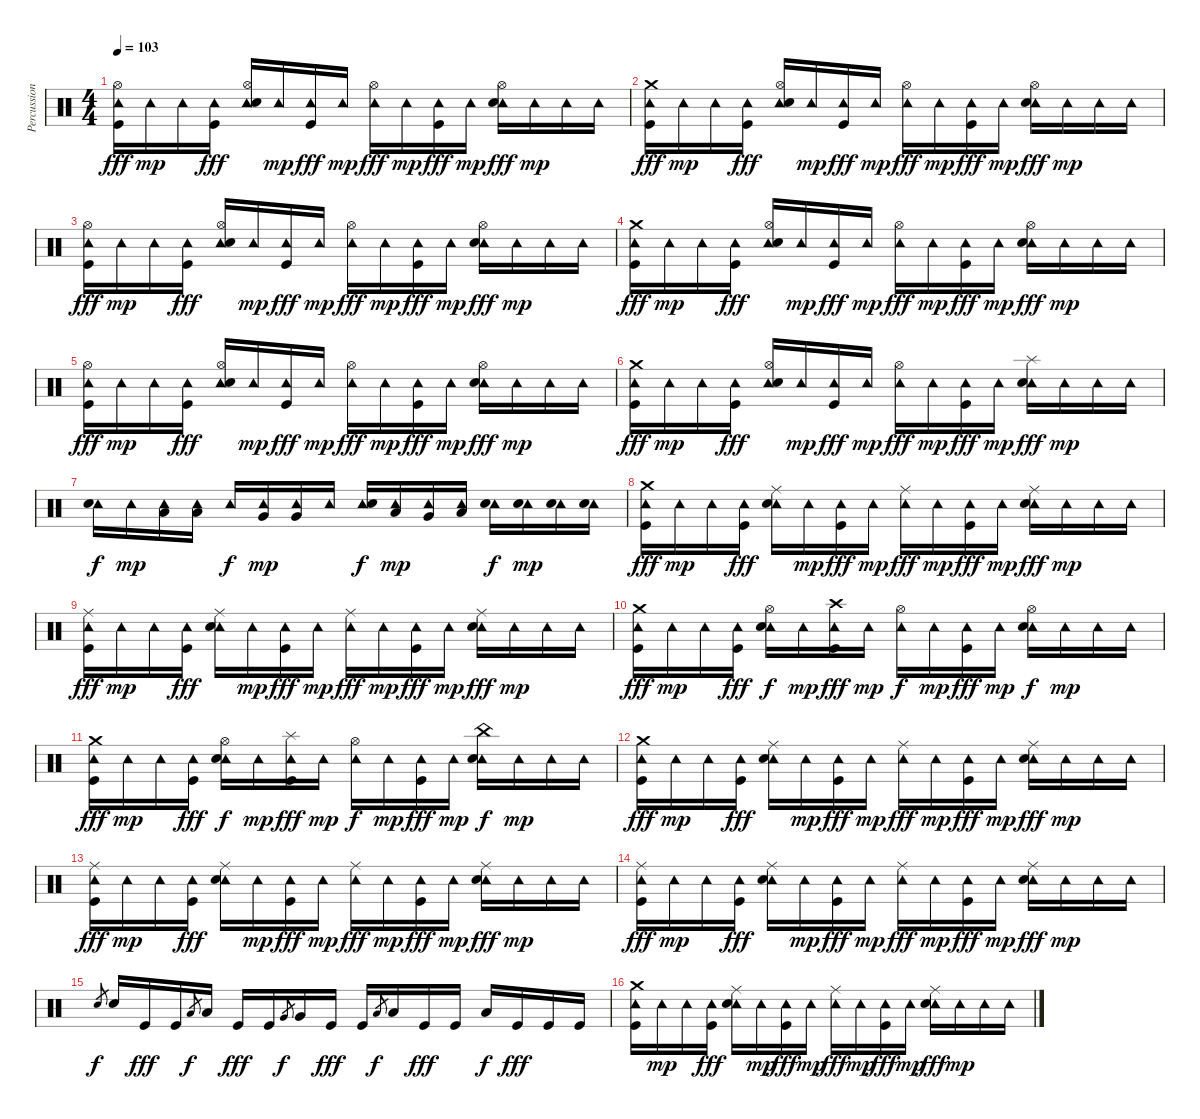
\track ("Percussion" "Percussion") {instrument percussion}
\staff {score}
\articulation defaults
\ts (4 4)
\tempo 103
\clef neutral
\ks c
("Tambourine (hit)" "Kick (hit)" "Hi-Hat (open)").16{dy fff} "Tambourine (hit)".16{dy mp} "Tambourine (hit)".16 ("Tambourine (hit)" "Kick (hit)").16{dy fff} ("Tambourine (hit)" "Electric Snare (hit)" "Hi-Hat (open)").16 "Tambourine (hit)".16{dy mp} ("Tambourine (hit)" "Kick (hit)").16{dy fff} "Tambourine (hit)".16{dy mp} ("Tambourine (hit)" "Hi-Hat (open)").16{dy fff} "Tambourine (hit)".16{dy mp} ("Tambourine (hit)" "Kick (hit)").16{dy fff} "Tambourine (hit)".16{dy mp} ("Tambourine (hit)" "Electric Snare (hit)" "Hi-Hat (open)").16{dy fff} "Tambourine (hit)".16{dy mp} "Tambourine (hit)".16 "Tambourine (hit)".16 |
("Tambourine (hit)" "Kick (hit)" "Crash medium (hit)").16{dy fff} "Tambourine (hit)".16{dy mp} "Tambourine (hit)".16 ("Tambourine (hit)" "Kick (hit)").16{dy fff} ("Tambourine (hit)" "Electric Snare (hit)" "Hi-Hat (open)").16 "Tambourine (hit)".16{dy mp} ("Tambourine (hit)" "Kick (hit)").16{dy fff} "Tambourine (hit)".16{dy mp} ("Tambourine (hit)" "Hi-Hat (open)").16{dy fff} "Tambourine (hit)".16{dy mp} ("Tambourine (hit)" "Kick (hit)").16{dy fff} "Tambourine (hit)".16{dy mp} ("Tambourine (hit)" "Electric Snare (hit)" "Hi-Hat (open)").16{dy fff} "Tambourine (hit)".16{dy mp} "Tambourine (hit)".16 "Tambourine (hit)".16 |
("Tambourine (hit)" "Kick (hit)" "Hi-Hat (open)").16{dy fff} "Tambourine (hit)".16{dy mp} "Tambourine (hit)".16 ("Tambourine (hit)" "Kick (hit)").16{dy fff} ("Tambourine (hit)" "Electric Snare (hit)" "Hi-Hat (open)").16 "Tambourine (hit)".16{dy mp} ("Tambourine (hit)" "Kick (hit)").16{dy fff} "Tambourine (hit)".16{dy mp} ("Tambourine (hit)" "Hi-Hat (open)").16{dy fff} "Tambourine (hit)".16{dy mp} ("Tambourine (hit)" "Kick (hit)").16{dy fff} "Tambourine (hit)".16{dy mp} ("Tambourine (hit)" "Electric Snare (hit)" "Hi-Hat (open)").16{dy fff} "Tambourine (hit)".16{dy mp} "Tambourine (hit)".16 "Tambourine (hit)".16 |
("Tambourine (hit)" "Kick (hit)" "Crash medium (hit)").16{dy fff} "Tambourine (hit)".16{dy mp} "Tambourine (hit)".16 ("Tambourine (hit)" "Kick (hit)").16{dy fff} ("Tambourine (hit)" "Electric Snare (hit)" "Hi-Hat (open)").16 "Tambourine (hit)".16{dy mp} ("Tambourine (hit)" "Kick (hit)").16{dy fff} "Tambourine (hit)".16{dy mp} ("Tambourine (hit)" "Hi-Hat (open)").16{dy fff} "Tambourine (hit)".16{dy mp} ("Tambourine (hit)" "Kick (hit)").16{dy fff} "Tambourine (hit)".16{dy mp} ("Tambourine (hit)" "Electric Snare (hit)" "Hi-Hat (open)").16{dy fff} "Tambourine (hit)".16{dy mp} "Tambourine (hit)".16 "Tambourine (hit)".16 |
("Tambourine (hit)" "Kick (hit)" "Hi-Hat (open)").16{dy fff} "Tambourine (hit)".16{dy mp} "Tambourine (hit)".16 ("Tambourine (hit)" "Kick (hit)").16{dy fff} ("Tambourine (hit)" "Electric Snare (hit)" "Hi-Hat (open)").16 "Tambourine (hit)".16{dy mp} ("Tambourine (hit)" "Kick (hit)").16{dy fff} "Tambourine (hit)".16{dy mp} ("Tambourine (hit)" "Hi-Hat (open)").16{dy fff} "Tambourine (hit)".16{dy mp} ("Tambourine (hit)" "Kick (hit)").16{dy fff} "Tambourine (hit)".16{dy mp} ("Tambourine (hit)" "Electric Snare (hit)" "Hi-Hat (open)").16{dy fff} "Tambourine (hit)".16{dy mp} "Tambourine (hit)".16 "Tambourine (hit)".16 |
("Tambourine (hit)" "Kick (hit)" "Crash medium (hit)").16{dy fff} "Tambourine (hit)".16{dy mp} "Tambourine (hit)".16 ("Tambourine (hit)" "Kick (hit)").16{dy fff} ("Tambourine (hit)" "Electric Snare (hit)" "Hi-Hat (open)").16 "Tambourine (hit)".16{dy mp} ("Tambourine (hit)" "Kick (hit)").16{dy fff} "Tambourine (hit)".16{dy mp} ("Tambourine (hit)" "Hi-Hat (open)").16{dy fff} "Tambourine (hit)".16{dy mp} ("Tambourine (hit)" "Kick (hit)").16{dy fff} "Tambourine (hit)".16{dy mp} ("Tambourine (hit)" "Electric Snare (hit)" "Splash (hit)").16{dy fff} "Tambourine (hit)".16{dy mp} "Tambourine (hit)".16 "Tambourine (hit)".16 |
("Tambourine (hit)" "Electric Snare (hit)").16{dy f} "Tambourine (hit)".16{dy mp} ("Tambourine (hit)" "Low Tom (hit)").16 ("Tambourine (hit)" "Low Tom (hit)").16 "Tambourine (hit)".16{dy f} ("Tambourine (hit)" "Very Low Tom (hit)").16{dy mp} ("Tambourine (hit)" "Very Low Tom (hit)").16 "Tambourine (hit)".16 ("Tambourine (hit)" "Electric Snare (hit)").16{dy f} ("Tambourine (hit)" "Low Tom (hit)").16{dy mp} ("Tambourine (hit)" "Very Low Tom (hit)").16 ("Tambourine (hit)" "Low Floor Tom (hit)").16 ("Tambourine (hit)" "Electric Snare (hit)").16{dy f} ("Tambourine (hit)" "Electric Snare (hit)").16{dy mp} ("Tambourine (hit)" "Electric Snare (hit)").16 ("Tambourine (hit)" "Electric Snare (hit)").16 |
("Tambourine (hit)" "Kick (hit)" "Crash medium (hit)").16{dy fff} "Tambourine (hit)".16{dy mp} "Tambourine (hit)".16 ("Tambourine (hit)" "Kick (hit)").16{dy fff} ("Tambourine (hit)" "Electric Snare (hit)" "Ride (middle)").16 "Tambourine (hit)".16{dy mp} ("Tambourine (hit)" "Kick (hit)").16{dy fff} "Tambourine (hit)".16{dy mp} ("Tambourine (hit)" "Ride (middle)").16{dy fff} "Tambourine (hit)".16{dy mp} ("Tambourine (hit)" "Kick (hit)").16{dy fff} "Tambourine (hit)".16{dy mp} ("Tambourine (hit)" "Electric Snare (hit)" "Ride (middle)").16{dy fff} "Tambourine (hit)".16{dy mp} "Tambourine (hit)".16 "Tambourine (hit)".16 |
("Tambourine (hit)" "Kick (hit)" "Ride (middle)").16{dy fff} "Tambourine (hit)".16{dy mp} "Tambourine (hit)".16 ("Tambourine (hit)" "Kick (hit)").16{dy fff} ("Tambourine (hit)" "Electric Snare (hit)" "Ride (middle)").16 "Tambourine (hit)".16{dy mp} ("Tambourine (hit)" "Kick (hit)").16{dy fff} "Tambourine (hit)".16{dy mp} ("Tambourine (hit)" "Ride (middle)").16{dy fff} "Tambourine (hit)".16{dy mp} ("Tambourine (hit)" "Kick (hit)").16{dy fff} "Tambourine (hit)".16{dy mp} ("Tambourine (hit)" "Electric Snare (hit)" "Ride (middle)").16{dy fff} "Tambourine (hit)".16{dy mp} "Tambourine (hit)".16 "Tambourine (hit)".16 |
("Tambourine (hit)" "Kick (hit)" "Crash medium (hit)").16{dy fff} "Tambourine (hit)".16{dy mp} "Tambourine (hit)".16 ("Tambourine (hit)" "Kick (hit)").16{dy fff} ("Tambourine (hit)" "Electric Snare (hit)" "Hi-Hat (open)").16{dy f} "Tambourine (hit)".16{dy mp} ("Tambourine (hit)" "Kick (hit)" "Crash high (hit)").16{dy fff} "Tambourine (hit)".16{dy mp} ("Tambourine (hit)" "Hi-Hat (open)").16{dy f} "Tambourine (hit)".16{dy mp} ("Tambourine (hit)" "Kick (hit)").16{dy fff} "Tambourine (hit)".16{dy mp} ("Tambourine (hit)" "Electric Snare (hit)" "Hi-Hat (open)").16{dy f} "Tambourine (hit)".16{dy mp} "Tambourine (hit)".16 "Tambourine (hit)".16 |
("Tambourine (hit)" "Kick (hit)" "Crash medium (hit)").16{dy fff} "Tambourine (hit)".16{dy mp} "Tambourine (hit)".16 ("Tambourine (hit)" "Kick (hit)").16{dy fff} ("Tambourine (hit)" "Electric Snare (hit)" "Hi-Hat (open)").16{dy f} "Tambourine (hit)".16{dy mp} ("Tambourine (hit)" "Kick (hit)" "Splash (hit)").16{dy fff} "Tambourine (hit)".16{dy mp} ("Tambourine (hit)" "Hi-Hat (open)").16{dy f} "Tambourine (hit)".16{dy mp} ("Tambourine (hit)" "Kick (hit)").16{dy fff} "Tambourine (hit)".16{dy mp} ("Tambourine (hit)" "Electric Snare (hit)" "China (hit)").16{dy f} "Tambourine (hit)".16{dy mp} "Tambourine (hit)".16 "Tambourine (hit)".16 |
("Tambourine (hit)" "Kick (hit)" "Crash medium (hit)").16{dy fff} "Tambourine (hit)".16{dy mp} "Tambourine (hit)".16 ("Tambourine (hit)" "Kick (hit)").16{dy fff} ("Tambourine (hit)" "Electric Snare (hit)" "Ride (middle)").16 "Tambourine (hit)".16{dy mp} ("Tambourine (hit)" "Kick (hit)").16{dy fff} "Tambourine (hit)".16{dy mp} ("Tambourine (hit)" "Ride (middle)").16{dy fff} "Tambourine (hit)".16{dy mp} ("Tambourine (hit)" "Kick (hit)").16{dy fff} "Tambourine (hit)".16{dy mp} ("Tambourine (hit)" "Electric Snare (hit)" "Ride (middle)").16{dy fff} "Tambourine (hit)".16{dy mp} "Tambourine (hit)".16 "Tambourine (hit)".16 |
("Tambourine (hit)" "Kick (hit)" "Ride (middle)").16{dy fff} "Tambourine (hit)".16{dy mp} "Tambourine (hit)".16 ("Tambourine (hit)" "Kick (hit)").16{dy fff} ("Tambourine (hit)" "Electric Snare (hit)" "Ride (middle)").16 "Tambourine (hit)".16{dy mp} ("Tambourine (hit)" "Kick (hit)").16{dy fff} "Tambourine (hit)".16{dy mp} ("Tambourine (hit)" "Ride (middle)").16{dy fff} "Tambourine (hit)".16{dy mp} ("Tambourine (hit)" "Kick (hit)").16{dy fff} "Tambourine (hit)".16{dy mp} ("Tambourine (hit)" "Electric Snare (hit)" "Ride (middle)").16{dy fff} "Tambourine (hit)".16{dy mp} "Tambourine (hit)".16 "Tambourine (hit)".16 |
("Tambourine (hit)" "Kick (hit)" "Ride (middle)").16{dy fff} "Tambourine (hit)".16{dy mp} "Tambourine (hit)".16 ("Tambourine (hit)" "Kick (hit)").16{dy fff} ("Tambourine (hit)" "Electric Snare (hit)" "Ride (middle)").16 "Tambourine (hit)".16{dy mp} ("Tambourine (hit)" "Kick (hit)").16{dy fff} "Tambourine (hit)".16{dy mp} ("Tambourine (hit)" "Ride (middle)").16{dy fff} "Tambourine (hit)".16{dy mp} ("Tambourine (hit)" "Kick (hit)").16{dy fff} "Tambourine (hit)".16{dy mp} ("Tambourine (hit)" "Electric Snare (hit)" "Ride (middle)").16{dy fff} "Tambourine (hit)".16{dy mp} "Tambourine (hit)".16 "Tambourine (hit)".16 |
"Electric Snare (hit)".8{gr dy f} "Electric Snare (hit)".16 "Kick (hit)".16{dy fff} "Kick (hit)".16 "Low Tom (hit)".8{gr dy f} "Low Tom (hit)".16 "Kick (hit)".16{dy fff} "Kick (hit)".16 "Very Low Tom (hit)".8{gr dy f} "Very Low Tom (hit)".16 "Kick (hit)".16{dy fff} "Kick (hit)".16 "Low Floor Tom (hit)".8{gr dy f} "Low Floor Tom (hit)".16 "Kick (hit)".16{dy fff} "Kick (hit)".16 "Low Floor Tom (hit)".16{dy f} "Kick (hit)".16{dy fff} "Kick (hit)".16 "Kick (hit)".16 |
("Tambourine (hit)" "Kick (hit)" "Crash medium (hit)").16 "Tambourine (hit)".16{dy mp} "Tambourine (hit)".16 ("Tambourine (hit)" "Kick (hit)").16{dy fff} ("Tambourine (hit)" "Electric Snare (hit)" "Ride (middle)").16 "Tambourine (hit)".16{dy mp} ("Tambourine (hit)" "Kick (hit)").16{dy fff} "Tambourine (hit)".16{dy mp} ("Tambourine (hit)" "Ride (middle)").16{dy fff} "Tambourine (hit)".16{dy mp} ("Tambourine (hit)" "Kick (hit)").16{dy fff} "Tambourine (hit)".16{dy mp} ("Tambourine (hit)" "Electric Snare (hit)" "Ride (middle)").16{dy fff} "Tambourine (hit)".16{dy mp} "Tambourine (hit)".16 "Tambourine (hit)".16
